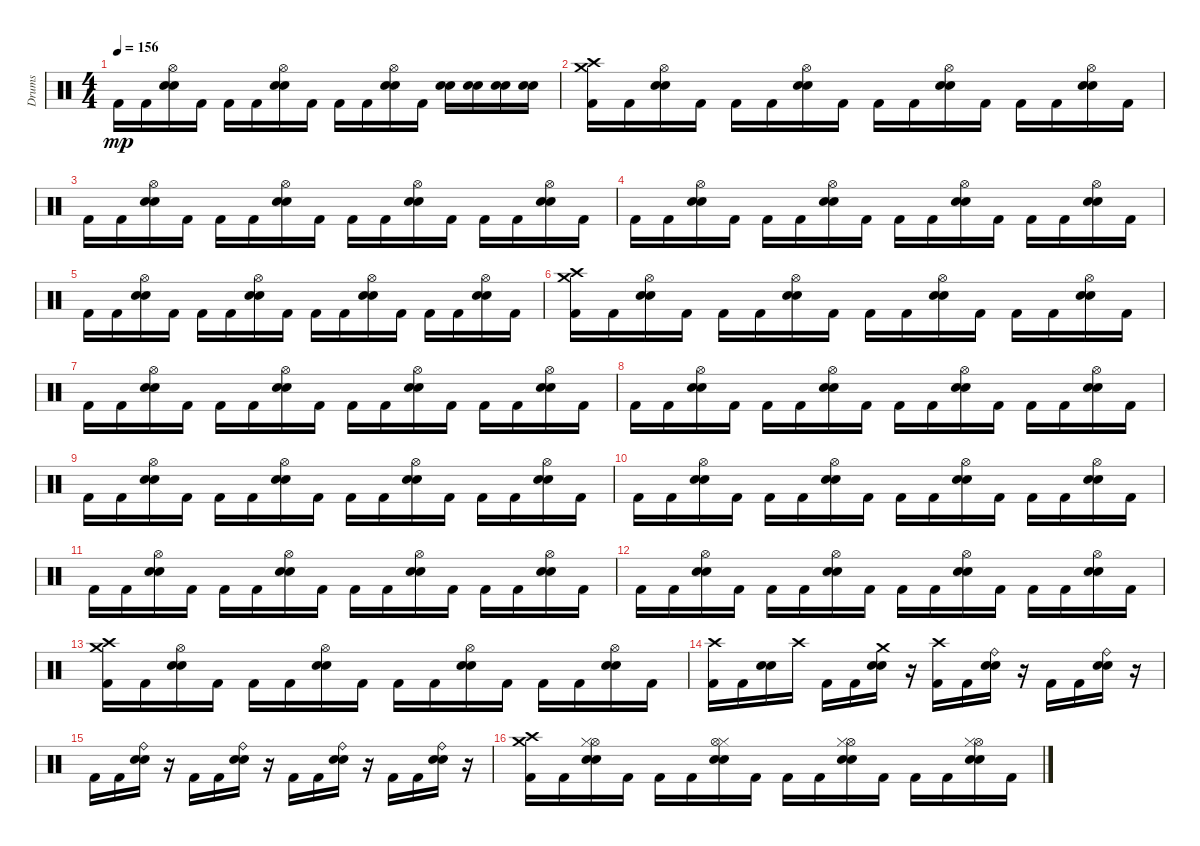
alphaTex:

\track ("Drums" "Drums") {instrument percussion}
\staff {score}
\articulation defaults
\ts (4 4)
\tempo 156
\clef neutral
\ks c "Kick (hit) 2".16{dy mp} "Kick (hit) 2".16
("Snare (hit) 2" "Electric Snare (hit)" "Hi-Hat (open)").16 "Kick (hit) 2".16 "Kick (hit) 2".16 "Kick (hit) 2".16 ("Hi-Hat (open)" "Snare (hit) 2" "Electric Snare (hit)").16 "Kick (hit) 2".16 "Kick (hit) 2".16 "Kick (hit) 2".16 ("Electric Snare (hit)" "Hi-Hat (open)" "Snare (hit) 2").16 "Kick (hit) 2".16 ("Electric Snare (hit)" "Snare (hit) 2").16 ("Snare (hit) 2" "Electric Snare (hit)").16 ("Electric Snare (hit)" "Snare (hit) 2").16 ("Snare (hit) 2" "Electric Snare (hit)").16 |
("Crash high (hit)" "Crash medium (hit)" "Kick (hit) 2").16 "Kick (hit) 2".16 ("Hi-Hat (open)" "Electric Snare (hit)" "Snare (hit) 2").16 "Kick (hit) 2".16 "Kick (hit) 2".16 "Kick (hit) 2".16 ("Electric Snare (hit)" "Hi-Hat (open)" "Snare (hit) 2").16 "Kick (hit) 2".16 "Kick (hit) 2".16 "Kick (hit) 2".16 ("Hi-Hat (open)" "Electric Snare (hit)" "Snare (hit) 2").16 "Kick (hit) 2".16 "Kick (hit) 2".16 "Kick (hit) 2".16 ("Hi-Hat (open)" "Snare (hit) 2" "Electric Snare (hit)").16 "Kick (hit) 2".16 |
"Kick (hit) 2".16 "Kick (hit) 2".16 ("Electric Snare (hit)" "Hi-Hat (open)" "Snare (hit) 2").16 "Kick (hit) 2".16 "Kick (hit) 2".16 "Kick (hit) 2".16 ("Snare (hit) 2" "Hi-Hat (open)" "Electric Snare (hit)").16 "Kick (hit) 2".16 "Kick (hit) 2".16 "Kick (hit) 2".16 ("Snare (hit) 2" "Electric Snare (hit)" "Hi-Hat (open)").16 "Kick (hit) 2".16 "Kick (hit) 2".16 "Kick (hit) 2".16 ("Hi-Hat (open)" "Electric Snare (hit)" "Snare (hit) 2").16 "Kick (hit) 2".16 |
"Kick (hit) 2".16 "Kick (hit) 2".16 ("Snare (hit) 2" "Hi-Hat (open)" "Electric Snare (hit)").16 "Kick (hit) 2".16 "Kick (hit) 2".16 "Kick (hit) 2".16 ("Snare (hit) 2" "Electric Snare (hit)" "Hi-Hat (open)").16 "Kick (hit) 2".16 "Kick (hit) 2".16 "Kick (hit) 2".16 ("Hi-Hat (open)" "Electric Snare (hit)" "Snare (hit) 2").16 "Kick (hit) 2".16 "Kick (hit) 2".16 "Kick (hit) 2".16 ("Snare (hit) 2" "Electric Snare (hit)" "Hi-Hat (open)").16 "Kick (hit) 2".16 |
"Kick (hit) 2".16 "Kick (hit) 2".16 ("Electric Snare (hit)" "Snare (hit) 2" "Hi-Hat (open)").16 "Kick (hit) 2".16 "Kick (hit) 2".16 "Kick (hit) 2".16 ("Hi-Hat (open)" "Electric Snare (hit)" "Snare (hit) 2").16 "Kick (hit) 2".16 "Kick (hit) 2".16 "Kick (hit) 2".16 ("Hi-Hat (open)" "Electric Snare (hit)" "Snare (hit) 2").16 "Kick (hit) 2".16 "Kick (hit) 2".16 "Kick (hit) 2".16 ("Hi-Hat (open)" "Electric Snare (hit)" "Snare (hit) 2").16 "Kick (hit) 2".16 |
("Kick (hit) 2" "Crash medium (hit)" "Crash high (hit)").16 "Kick (hit) 2".16 ("Hi-Hat (open)" "Snare (hit) 2" "Electric Snare (hit)").16 "Kick (hit) 2".16 "Kick (hit) 2".16 "Kick (hit) 2".16 ("Hi-Hat (open)" "Snare (hit) 2" "Electric Snare (hit)").16 "Kick (hit) 2".16 "Kick (hit) 2".16 "Kick (hit) 2".16 ("Hi-Hat (open)" "Snare (hit) 2" "Electric Snare (hit)").16 "Kick (hit) 2".16 "Kick (hit) 2".16 "Kick (hit) 2".16 ("Electric Snare (hit)" "Snare (hit) 2" "Hi-Hat (open)").16 "Kick (hit) 2".16 |
"Kick (hit) 2".16 "Kick (hit) 2".16 ("Snare (hit) 2" "Electric Snare (hit)" "Hi-Hat (open)").16 "Kick (hit) 2".16 "Kick (hit) 2".16 "Kick (hit) 2".16 ("Hi-Hat (open)" "Electric Snare (hit)" "Snare (hit) 2").16 "Kick (hit) 2".16 "Kick (hit) 2".16 "Kick (hit) 2".16 ("Electric Snare (hit)" "Hi-Hat (open)" "Snare (hit) 2").16 "Kick (hit) 2".16 "Kick (hit) 2".16 "Kick (hit) 2".16 ("Electric Snare (hit)" "Snare (hit) 2" "Hi-Hat (open)").16 "Kick (hit) 2".16 |
"Kick (hit) 2".16 "Kick (hit) 2".16 ("Hi-Hat (open)" "Electric Snare (hit)" "Snare (hit) 2").16 "Kick (hit) 2".16 "Kick (hit) 2".16 "Kick (hit) 2".16 ("Snare (hit) 2" "Hi-Hat (open)" "Electric Snare (hit)").16 "Kick (hit) 2".16 "Kick (hit) 2".16 "Kick (hit) 2".16 ("Snare (hit) 2" "Electric Snare (hit)" "Hi-Hat (open)").16 "Kick (hit) 2".16 "Kick (hit) 2".16 "Kick (hit) 2".16 ("Electric Snare (hit)" "Snare (hit) 2" "Hi-Hat (open)").16 "Kick (hit) 2".16 |
"Kick (hit) 2".16 "Kick (hit) 2".16 ("Snare (hit) 2" "Electric Snare (hit)" "Hi-Hat (open)").16 "Kick (hit) 2".16 "Kick (hit) 2".16 "Kick (hit) 2".16 ("Snare (hit) 2" "Hi-Hat (open)" "Electric Snare (hit)").16 "Kick (hit) 2".16 "Kick (hit) 2".16 "Kick (hit) 2".16 ("Electric Snare (hit)" "Snare (hit) 2" "Hi-Hat (open)").16 "Kick (hit) 2".16 "Kick (hit) 2".16 "Kick (hit) 2".16 ("Snare (hit) 2" "Hi-Hat (open)" "Electric Snare (hit)").16 "Kick (hit) 2".16 |
"Kick (hit) 2".16 "Kick (hit) 2".16 ("Hi-Hat (open)" "Snare (hit) 2" "Electric Snare (hit)").16 "Kick (hit) 2".16 "Kick (hit) 2".16 "Kick (hit) 2".16 ("Hi-Hat (open)" "Snare (hit) 2" "Electric Snare (hit)").16 "Kick (hit) 2".16 "Kick (hit) 2".16 "Kick (hit) 2".16 ("Snare (hit) 2" "Electric Snare (hit)" "Hi-Hat (open)").16 "Kick (hit) 2".16 "Kick (hit) 2".16 "Kick (hit) 2".16 ("Electric Snare (hit)" "Snare (hit) 2" "Hi-Hat (open)").16 "Kick (hit) 2".16 |
"Kick (hit) 2".16 "Kick (hit) 2".16 ("Electric Snare (hit)" "Snare (hit) 2" "Hi-Hat (open)").16 "Kick (hit) 2".16 "Kick (hit) 2".16 "Kick (hit) 2".16 ("Hi-Hat (open)" "Snare (hit) 2" "Electric Snare (hit)").16 "Kick (hit) 2".16 "Kick (hit) 2".16 "Kick (hit) 2".16 ("Electric Snare (hit)" "Hi-Hat (open)" "Snare (hit) 2").16 "Kick (hit) 2".16 "Kick (hit) 2".16 "Kick (hit) 2".16 ("Electric Snare (hit)" "Hi-Hat (open)" "Snare (hit) 2").16 "Kick (hit) 2".16 |
"Kick (hit) 2".16 "Kick (hit) 2".16 ("Snare (hit) 2" "Electric Snare (hit)" "Hi-Hat (open)").16 "Kick (hit) 2".16 "Kick (hit) 2".16 "Kick (hit) 2".16 ("Hi-Hat (open)" "Electric Snare (hit)" "Snare (hit) 2").16 "Kick (hit) 2".16 "Kick (hit) 2".16 "Kick (hit) 2".16 ("Snare (hit) 2" "Electric Snare (hit)" "Hi-Hat (open)").16 "Kick (hit) 2".16 "Kick (hit) 2".16 "Kick (hit) 2".16 ("Electric Snare (hit)" "Snare (hit) 2" "Hi-Hat (open)").16 "Kick (hit) 2".16 |
("Crash medium (hit)" "Crash high (hit)" "Kick (hit) 2").16 "Kick (hit) 2".16 ("Electric Snare (hit)" "Snare (hit) 2" "Hi-Hat (open)").16 "Kick (hit) 2".16 "Kick (hit) 2".16 "Kick (hit) 2".16 ("Hi-Hat (open)" "Electric Snare (hit)" "Snare (hit) 2").16 "Kick (hit) 2".16 "Kick (hit) 2".16 "Kick (hit) 2".16 ("Snare (hit) 2" "Hi-Hat (open)" "Electric Snare (hit)").16 "Kick (hit) 2".16 "Kick (hit) 2".16 "Kick (hit) 2".16 ("Electric Snare (hit)" "Hi-Hat (open)" "Snare (hit) 2").16 "Kick (hit) 2".16 |
("Kick (hit) 2" "Crash high (hit)").16 "Kick (hit) 2".16 ("Electric Snare (hit)" "Snare (hit) 2").16 "Crash high (hit)".16 "Kick (hit) 2".16 "Kick (hit) 2".16 ("Crash medium (hit)" "Snare (hit) 2" "Electric Snare (hit)").16 r.16 ("Kick (hit) 2" "Crash high (hit)").16 "Kick (hit) 2".16 ("Electric Snare (hit)" "Ride (bell)" "Snare (hit) 2").16 r.16 "Kick (hit) 2".16 "Kick (hit) 2".16 ("Electric Snare (hit)" "Ride (bell)" "Snare (hit) 2").16 r.16 |
"Kick (hit) 2".16 "Kick (hit) 2".16 ("Snare (hit) 2" "Ride (bell)" "Electric Snare (hit)").16 r.16 "Kick (hit) 2".16 "Kick (hit) 2".16 ("Ride (bell)" "Snare (hit) 2" "Electric Snare (hit)").16 r.16 "Kick (hit) 2".16 "Kick (hit) 2".16 ("Ride (bell)" "Snare (hit) 2" "Electric Snare (hit)").16 r.16 "Kick (hit) 2".16 "Kick (hit) 2".16 ("Ride (bell)" "Snare (hit) 2" "Electric Snare (hit)").16 r.16 |
("Kick (hit) 2" "Crash high (hit)" "Crash medium (hit)").16 "Kick (hit) 2".16 ("Hi-Hat (open)" "Snare (hit) 2" "Hi-Hat (closed)" "Electric Snare (hit)").16 "Kick (hit) 2".16 "Kick (hit) 2".16 "Kick (hit) 2".16 ("Snare (hit) 2" "Electric Snare (hit)" "Hi-Hat (closed)" "Hi-Hat (open)").16 "Kick (hit) 2".16 "Kick (hit) 2".16 "Kick (hit) 2".16 ("Electric Snare (hit)" "Snare (hit) 2" "Hi-Hat (open)" "Hi-Hat (closed)").16 "Kick (hit) 2".16 "Kick (hit) 2".16 "Kick (hit) 2".16 ("Hi-Hat (open)" "Snare (hit) 2" "Hi-Hat (closed)" "Electric Snare (hit)").16 "Kick (hit) 2".16
